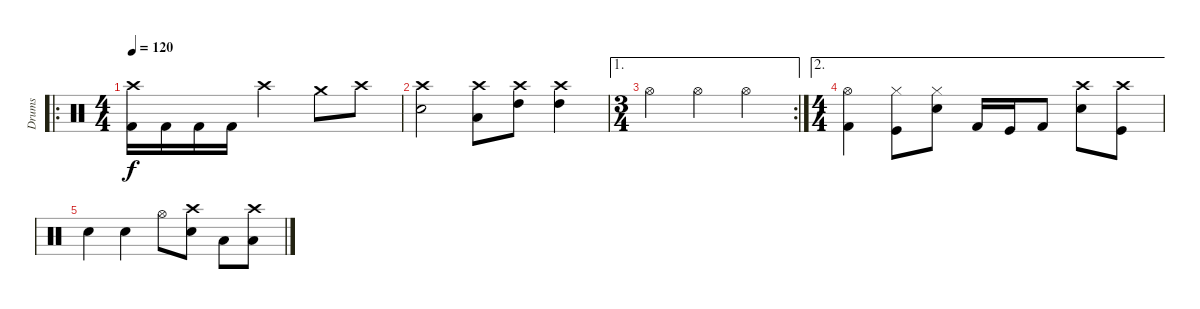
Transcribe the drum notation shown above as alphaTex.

\track ("Drums" "Drums") {instrument percussion}
\staff {score}
\articulation defaults
\ro
\ts (4 4)
\tempo 120
\clef neutral
\ks c
("Kick (hit) 2" "Crash high (hit)").16{dy f} "Kick (hit) 2".16 "Kick (hit) 2".16 "Kick (hit) 2".16 "Crash high (hit)".2 "Crash medium (hit)".8 "Crash high (hit)".8 |
("Crash high (hit)" "Electric Snare (hit)").2 ("Crash high (hit)" "Low Tom (hit)").8 ("Crash high (hit)" "High Tom (hit)").8 ("Crash high (hit)" "High Tom (hit)").4 |
\ae 1
\rc 2
\ts (3 4)
"Hi-Hat (open)".4 "Hi-Hat (open)".4 "Hi-Hat (open)".4 |
\ae 2
\ts (4 4)
("Kick (hit) 2" "Hi-Hat (open)").4 ("Kick (hit)" "Hi-Hat (closed)").8 ("Hi-Hat (closed)" "Electric Snare (hit)").8 "Kick (hit) 2".16 "Kick (hit)".16 "Kick (hit) 2".8 ("Electric Snare (hit)" "Crash high (hit)").8 ("Kick (hit)" "Crash high (hit)").8 |
"Electric Snare (hit)".4 "Electric Snare (hit)".4 "Hi-Hat (open)".8 ("Snare (hit) 2" "Crash high (hit)").8 "Low Tom (hit)".8 ("Low Tom (hit)" "Crash high (hit)").8
